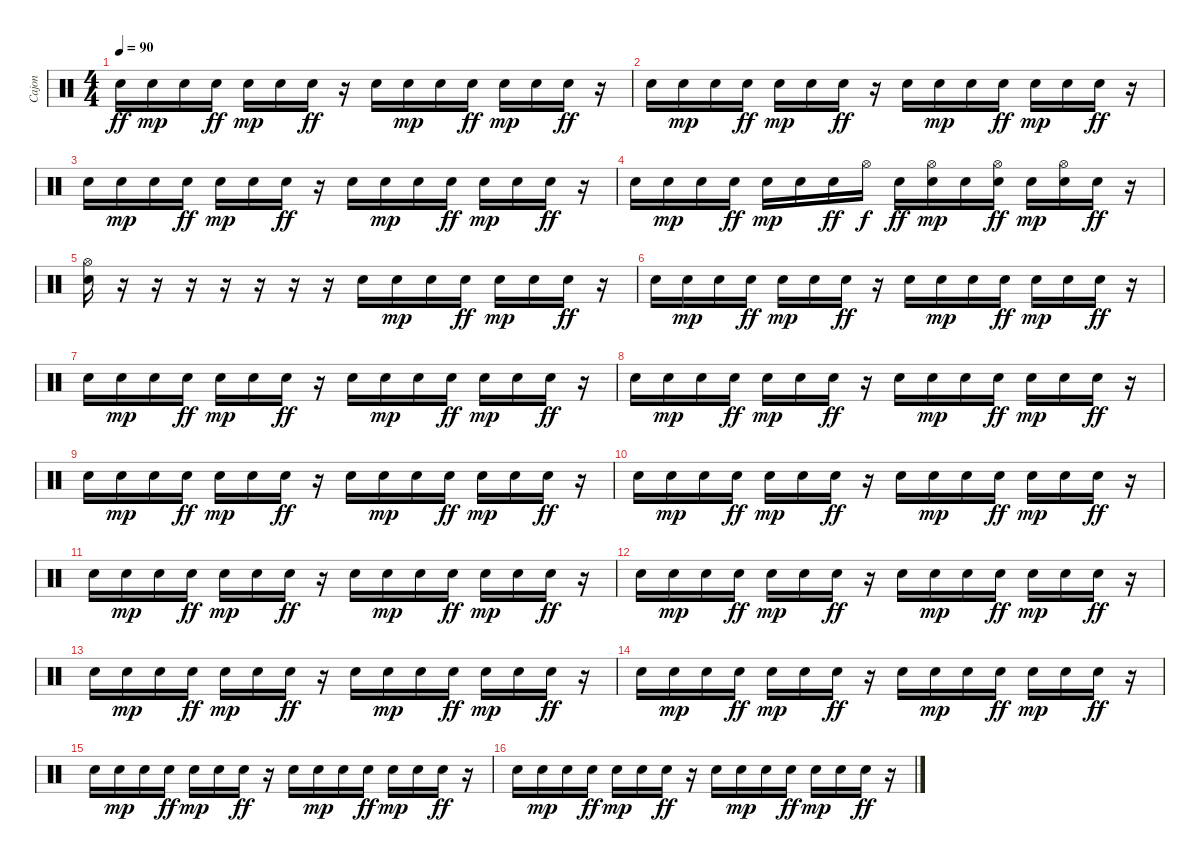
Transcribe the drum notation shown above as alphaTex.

\track ("Cajon" "Cajon") {instrument percussion}
\staff {score}
\articulation defaults
\ts (4 4)
\tempo 90
\clef neutral
\ks c "Snare (hit) 2".16{dy ff} "Electric Snare (hit)".16{dy mp} "Electric Snare (hit)".16 "Electric Snare (hit)".16{dy ff} "Electric Snare (hit)".16{dy mp} "Electric Snare (hit)".16 "Electric Snare (hit)".16{dy ff}
r.16 "Snare (hit) 2".16 "Electric Snare (hit)".16{dy mp} "Electric Snare (hit)".16 "Electric Snare (hit)".16{dy ff} "Electric Snare (hit)".16{dy mp} "Electric Snare (hit)".16 "Electric Snare (hit)".16{dy ff} r.16 |
"Snare (hit) 2".16 "Electric Snare (hit)".16{dy mp} "Electric Snare (hit)".16 "Electric Snare (hit)".16{dy ff} "Electric Snare (hit)".16{dy mp} "Electric Snare (hit)".16 "Electric Snare (hit)".16{dy ff} r.16 "Snare (hit) 2".16 "Electric Snare (hit)".16{dy mp} "Electric Snare (hit)".16 "Electric Snare (hit)".16{dy ff} "Electric Snare (hit)".16{dy mp} "Electric Snare (hit)".16 "Electric Snare (hit)".16{dy ff} r.16 |
"Snare (hit) 2".16 "Electric Snare (hit)".16{dy mp} "Electric Snare (hit)".16 "Electric Snare (hit)".16{dy ff} "Electric Snare (hit)".16{dy mp} "Electric Snare (hit)".16 "Electric Snare (hit)".16{dy ff} r.16 "Snare (hit) 2".16 "Electric Snare (hit)".16{dy mp} "Electric Snare (hit)".16 "Electric Snare (hit)".16{dy ff} "Electric Snare (hit)".16{dy mp} "Electric Snare (hit)".16 "Electric Snare (hit)".16{dy ff} r.16 |
"Snare (hit) 2".16 "Electric Snare (hit)".16{dy mp} "Electric Snare (hit)".16 "Electric Snare (hit)".16{dy ff} "Electric Snare (hit)".16{dy mp} "Electric Snare (hit)".16 "Electric Snare (hit)".16{dy ff} "Hi-Hat (open)".16{dy f} "Snare (hit) 2".16{dy ff} ("Hi-Hat (open)" "Electric Snare (hit)").16{dy mp} "Electric Snare (hit)".16 ("Hi-Hat (open)" "Electric Snare (hit)").16{dy ff} "Electric Snare (hit)".16{dy mp} ("Hi-Hat (open)" "Electric Snare (hit)").16 "Electric Snare (hit)".16{dy ff} r.16 |
("Hi-Hat (open)" "Snare (hit) 2").16 r.16 r.16 r.16 r.16 r.16 r.16 r.16 "Snare (hit) 2".16 "Electric Snare (hit)".16{dy mp} "Electric Snare (hit)".16 "Electric Snare (hit)".16{dy ff} "Electric Snare (hit)".16{dy mp} "Electric Snare (hit)".16 "Electric Snare (hit)".16{dy ff} r.16 |
"Snare (hit) 2".16 "Electric Snare (hit)".16{dy mp} "Electric Snare (hit)".16 "Electric Snare (hit)".16{dy ff} "Electric Snare (hit)".16{dy mp} "Electric Snare (hit)".16 "Electric Snare (hit)".16{dy ff} r.16 "Snare (hit) 2".16 "Electric Snare (hit)".16{dy mp} "Electric Snare (hit)".16 "Electric Snare (hit)".16{dy ff} "Electric Snare (hit)".16{dy mp} "Electric Snare (hit)".16 "Electric Snare (hit)".16{dy ff} r.16 |
"Snare (hit) 2".16 "Electric Snare (hit)".16{dy mp} "Electric Snare (hit)".16 "Electric Snare (hit)".16{dy ff} "Electric Snare (hit)".16{dy mp} "Electric Snare (hit)".16 "Electric Snare (hit)".16{dy ff} r.16 "Snare (hit) 2".16 "Electric Snare (hit)".16{dy mp} "Electric Snare (hit)".16 "Electric Snare (hit)".16{dy ff} "Electric Snare (hit)".16{dy mp} "Electric Snare (hit)".16 "Electric Snare (hit)".16{dy ff} r.16 |
"Snare (hit) 2".16 "Electric Snare (hit)".16{dy mp} "Electric Snare (hit)".16 "Electric Snare (hit)".16{dy ff} "Electric Snare (hit)".16{dy mp} "Electric Snare (hit)".16 "Electric Snare (hit)".16{dy ff} r.16 "Snare (hit) 2".16 "Electric Snare (hit)".16{dy mp} "Electric Snare (hit)".16 "Electric Snare (hit)".16{dy ff} "Electric Snare (hit)".16{dy mp} "Electric Snare (hit)".16 "Electric Snare (hit)".16{dy ff} r.16 |
"Snare (hit) 2".16 "Electric Snare (hit)".16{dy mp} "Electric Snare (hit)".16 "Electric Snare (hit)".16{dy ff} "Electric Snare (hit)".16{dy mp} "Electric Snare (hit)".16 "Electric Snare (hit)".16{dy ff} r.16 "Snare (hit) 2".16 "Electric Snare (hit)".16{dy mp} "Electric Snare (hit)".16 "Electric Snare (hit)".16{dy ff} "Electric Snare (hit)".16{dy mp} "Electric Snare (hit)".16 "Electric Snare (hit)".16{dy ff} r.16 |
"Snare (hit) 2".16 "Electric Snare (hit)".16{dy mp} "Electric Snare (hit)".16 "Electric Snare (hit)".16{dy ff} "Electric Snare (hit)".16{dy mp} "Electric Snare (hit)".16 "Electric Snare (hit)".16{dy ff} r.16 "Snare (hit) 2".16 "Electric Snare (hit)".16{dy mp} "Electric Snare (hit)".16 "Electric Snare (hit)".16{dy ff} "Electric Snare (hit)".16{dy mp} "Electric Snare (hit)".16 "Electric Snare (hit)".16{dy ff} r.16 |
"Snare (hit) 2".16 "Electric Snare (hit)".16{dy mp} "Electric Snare (hit)".16 "Electric Snare (hit)".16{dy ff} "Electric Snare (hit)".16{dy mp} "Electric Snare (hit)".16 "Electric Snare (hit)".16{dy ff} r.16 "Snare (hit) 2".16 "Electric Snare (hit)".16{dy mp} "Electric Snare (hit)".16 "Electric Snare (hit)".16{dy ff} "Electric Snare (hit)".16{dy mp} "Electric Snare (hit)".16 "Electric Snare (hit)".16{dy ff} r.16 |
"Snare (hit) 2".16 "Electric Snare (hit)".16{dy mp} "Electric Snare (hit)".16 "Electric Snare (hit)".16{dy ff} "Electric Snare (hit)".16{dy mp} "Electric Snare (hit)".16 "Electric Snare (hit)".16{dy ff} r.16 "Snare (hit) 2".16 "Electric Snare (hit)".16{dy mp} "Electric Snare (hit)".16 "Electric Snare (hit)".16{dy ff} "Electric Snare (hit)".16{dy mp} "Electric Snare (hit)".16 "Electric Snare (hit)".16{dy ff} r.16 |
"Snare (hit) 2".16 "Electric Snare (hit)".16{dy mp} "Electric Snare (hit)".16 "Electric Snare (hit)".16{dy ff} "Electric Snare (hit)".16{dy mp} "Electric Snare (hit)".16 "Electric Snare (hit)".16{dy ff} r.16 "Snare (hit) 2".16 "Electric Snare (hit)".16{dy mp} "Electric Snare (hit)".16 "Electric Snare (hit)".16{dy ff} "Electric Snare (hit)".16{dy mp} "Electric Snare (hit)".16 "Electric Snare (hit)".16{dy ff} r.16 |
"Snare (hit) 2".16 "Electric Snare (hit)".16{dy mp} "Electric Snare (hit)".16 "Electric Snare (hit)".16{dy ff} "Electric Snare (hit)".16{dy mp} "Electric Snare (hit)".16 "Electric Snare (hit)".16{dy ff} r.16 "Snare (hit) 2".16 "Electric Snare (hit)".16{dy mp} "Electric Snare (hit)".16 "Electric Snare (hit)".16{dy ff} "Electric Snare (hit)".16{dy mp} "Electric Snare (hit)".16 "Electric Snare (hit)".16{dy ff} r.16 |
"Snare (hit) 2".16 "Electric Snare (hit)".16{dy mp} "Electric Snare (hit)".16 "Electric Snare (hit)".16{dy ff} "Electric Snare (hit)".16{dy mp} "Electric Snare (hit)".16 "Electric Snare (hit)".16{dy ff} r.16 "Snare (hit) 2".16 "Electric Snare (hit)".16{dy mp} "Electric Snare (hit)".16 "Electric Snare (hit)".16{dy ff} "Electric Snare (hit)".16{dy mp} "Electric Snare (hit)".16 "Electric Snare (hit)".16{dy ff} r.16 |
"Snare (hit) 2".16 "Electric Snare (hit)".16{dy mp} "Electric Snare (hit)".16 "Electric Snare (hit)".16{dy ff} "Electric Snare (hit)".16{dy mp} "Electric Snare (hit)".16 "Electric Snare (hit)".16{dy ff} r.16 "Snare (hit) 2".16 "Electric Snare (hit)".16{dy mp} "Electric Snare (hit)".16 "Electric Snare (hit)".16{dy ff} "Electric Snare (hit)".16{dy mp} "Electric Snare (hit)".16 "Electric Snare (hit)".16{dy ff} r.16
